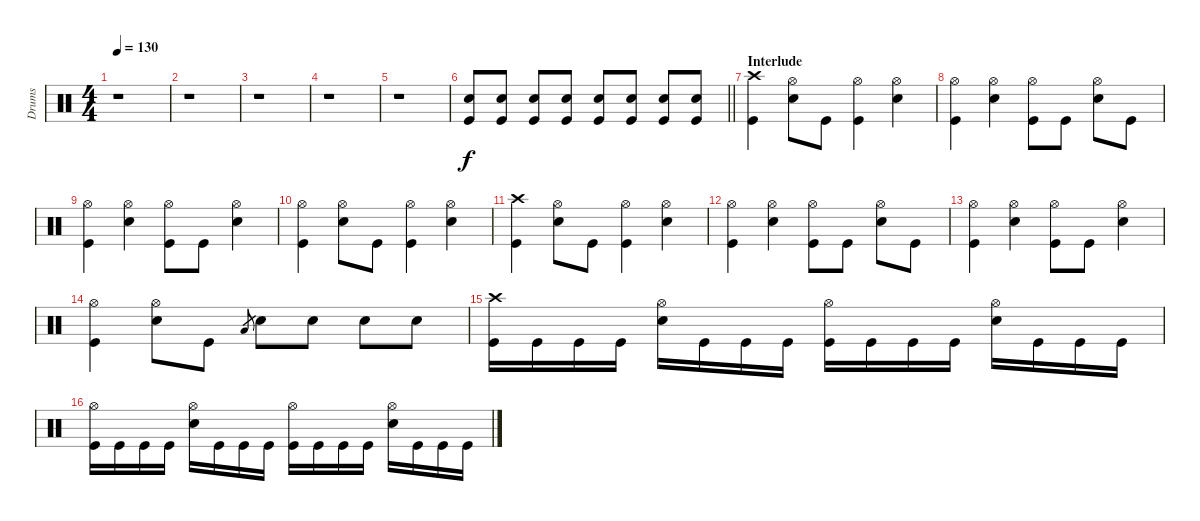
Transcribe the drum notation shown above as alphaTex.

\track ("Drums" "Drums") {instrument percussion}
\staff {score}
\articulation defaults
\ts (4 4)
\tempo 130
\clef neutral
\ks c
r.1{dy f} |
r.1 |
r.1 |
r.1 |
r.1 |
\barLineRight lightlight
("Electric Snare (hit)" "Kick (hit)").8 ("Electric Snare (hit)" "Kick (hit)").8 ("Electric Snare (hit)" "Kick (hit)").8 ("Electric Snare (hit)" "Kick (hit)").8 ("Electric Snare (hit)" "Kick (hit)").8 ("Electric Snare (hit)" "Kick (hit)").8 ("Electric Snare (hit)" "Kick (hit)").8 ("Electric Snare (hit)" "Kick (hit)").8 |
\section ("" "Interlude ")
("Crash high (hit)" "Kick (hit)").4 ("Hi-Hat (open)" "Electric Snare (hit)").8 "Kick (hit)".8 ("Hi-Hat (open)" "Kick (hit)").4 ("Hi-Hat (open)" "Electric Snare (hit)").4 |
("Hi-Hat (open)" "Kick (hit)").4 ("Hi-Hat (open)" "Electric Snare (hit)").4 ("Hi-Hat (open)" "Kick (hit)").8 "Kick (hit)".8 ("Hi-Hat (open)" "Electric Snare (hit)").8 "Kick (hit)".8 |
("Hi-Hat (open)" "Kick (hit)").4 ("Hi-Hat (open)" "Electric Snare (hit)").4 ("Hi-Hat (open)" "Kick (hit)").8 "Kick (hit)".8 ("Hi-Hat (open)" "Electric Snare (hit)").4 |
("Hi-Hat (open)" "Kick (hit)").4 ("Hi-Hat (open)" "Electric Snare (hit)").8 "Kick (hit)".8 ("Hi-Hat (open)" "Kick (hit)").4 ("Hi-Hat (open)" "Electric Snare (hit)").4 |
("Crash high (hit)" "Kick (hit)").4 ("Hi-Hat (open)" "Electric Snare (hit)").8 "Kick (hit)".8 ("Hi-Hat (open)" "Kick (hit)").4 ("Hi-Hat (open)" "Electric Snare (hit)").4 |
("Hi-Hat (open)" "Kick (hit)").4 ("Hi-Hat (open)" "Electric Snare (hit)").4 ("Hi-Hat (open)" "Kick (hit)").8 "Kick (hit)".8 ("Hi-Hat (open)" "Electric Snare (hit)").8 "Kick (hit)".8 |
("Hi-Hat (open)" "Kick (hit)").4 ("Hi-Hat (open)" "Electric Snare (hit)").4 ("Hi-Hat (open)" "Kick (hit)").8 "Kick (hit)".8 ("Hi-Hat (open)" "Electric Snare (hit)").4 |
("Hi-Hat (open)" "Kick (hit)").4 ("Hi-Hat (open)" "Electric Snare (hit)").8 "Kick (hit)".8 "Low Floor Tom (hit)".8{gr} "Electric Snare (hit)".8 "Electric Snare (hit)".8 "Electric Snare (hit)".8 "Electric Snare (hit)".8 |
("Crash high (hit)" "Kick (hit)").16 "Kick (hit)".16 "Kick (hit)".16 "Kick (hit)".16 ("Hi-Hat (open)" "Electric Snare (hit)").16 "Kick (hit)".16 "Kick (hit)".16 "Kick (hit)".16 ("Hi-Hat (open)" "Kick (hit)").16 "Kick (hit)".16 "Kick (hit)".16 "Kick (hit)".16 ("Hi-Hat (open)" "Electric Snare (hit)").16 "Kick (hit)".16 "Kick (hit)".16 "Kick (hit)".16 |
("Hi-Hat (open)" "Kick (hit)").16 "Kick (hit)".16 "Kick (hit)".16 "Kick (hit)".16 ("Hi-Hat (open)" "Electric Snare (hit)").16 "Kick (hit)".16 "Kick (hit)".16 "Kick (hit)".16 ("Hi-Hat (open)" "Kick (hit)").16 "Kick (hit)".16 "Kick (hit)".16 "Kick (hit)".16 ("Hi-Hat (open)" "Electric Snare (hit)").16 "Kick (hit)".16 "Kick (hit)".16 "Kick (hit)".16
